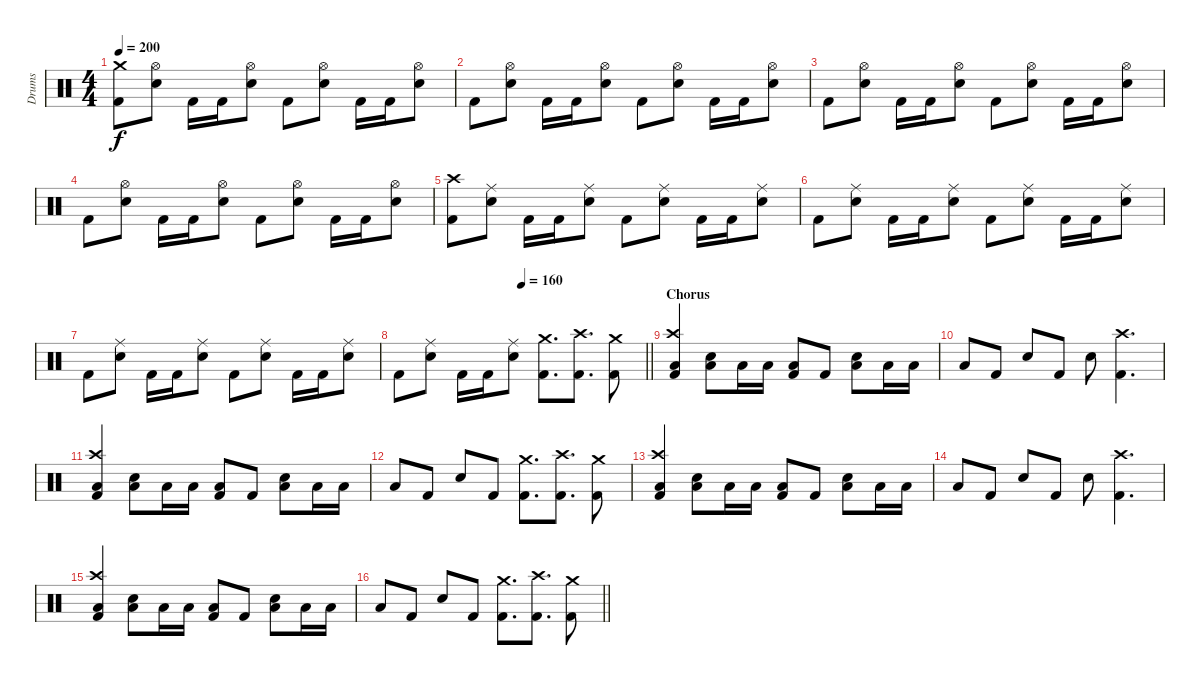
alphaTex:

\track ("Drums" "Drums") {instrument percussion}
\staff {score}
\articulation defaults
\ts (4 4)
\tempo 200
\clef neutral
\ks c
("Crash medium (hit)" "Kick (hit) 2").8{dy f} ("Hi-Hat (open)" "Electric Snare (hit)").8 "Kick (hit) 2".16 "Kick (hit) 2".16 ("Hi-Hat (open)" "Electric Snare (hit)").8 "Kick (hit) 2".8 ("Hi-Hat (open)" "Electric Snare (hit)").8 "Kick (hit) 2".16 "Kick (hit) 2".16 ("Hi-Hat (open)" "Electric Snare (hit)").8 |
"Kick (hit) 2".8 ("Hi-Hat (open)" "Electric Snare (hit)").8 "Kick (hit) 2".16 "Kick (hit) 2".16 ("Hi-Hat (open)" "Electric Snare (hit)").8 "Kick (hit) 2".8 ("Hi-Hat (open)" "Electric Snare (hit)").8 "Kick (hit) 2".16 "Kick (hit) 2".16 ("Hi-Hat (open)" "Electric Snare (hit)").8 |
"Kick (hit) 2".8 ("Hi-Hat (open)" "Electric Snare (hit)").8 "Kick (hit) 2".16 "Kick (hit) 2".16 ("Hi-Hat (open)" "Electric Snare (hit)").8 "Kick (hit) 2".8 ("Hi-Hat (open)" "Electric Snare (hit)").8 "Kick (hit) 2".16 "Kick (hit) 2".16 ("Hi-Hat (open)" "Electric Snare (hit)").8 |
"Kick (hit) 2".8 ("Hi-Hat (open)" "Electric Snare (hit)").8 "Kick (hit) 2".16 "Kick (hit) 2".16 ("Hi-Hat (open)" "Electric Snare (hit)").8 "Kick (hit) 2".8 ("Hi-Hat (open)" "Electric Snare (hit)").8 "Kick (hit) 2".16 "Kick (hit) 2".16 ("Hi-Hat (open)" "Electric Snare (hit)").8 |
("Crash high (hit)" "Kick (hit) 2").8 ("Ride (middle)" "Electric Snare (hit)").8 "Kick (hit) 2".16 "Kick (hit) 2".16 ("Ride (middle)" "Electric Snare (hit)").8 "Kick (hit) 2".8 ("Ride (middle)" "Electric Snare (hit)").8 "Kick (hit) 2".16 "Kick (hit) 2".16 ("Ride (middle)" "Electric Snare (hit)").8 |
"Kick (hit) 2".8 ("Ride (middle)" "Electric Snare (hit)").8 "Kick (hit) 2".16 "Kick (hit) 2".16 ("Ride (middle)" "Electric Snare (hit)").8 "Kick (hit) 2".8 ("Ride (middle)" "Electric Snare (hit)").8 "Kick (hit) 2".16 "Kick (hit) 2".16 ("Ride (middle)" "Electric Snare (hit)").8 |
"Kick (hit) 2".8 ("Ride (middle)" "Electric Snare (hit)").8 "Kick (hit) 2".16 "Kick (hit) 2".16 ("Ride (middle)" "Electric Snare (hit)").8 "Kick (hit) 2".8 ("Ride (middle)" "Electric Snare (hit)").8 "Kick (hit) 2".16 "Kick (hit) 2".16 ("Ride (middle)" "Electric Snare (hit)").8 |
\tempo (160 0.5)
\barLineRight lightlight "Kick (hit) 2".8
("Ride (middle)" "Electric Snare (hit)").8 "Kick (hit) 2".16 "Kick (hit) 2".16 ("Ride (middle)" "Electric Snare (hit)").8 ("Crash medium (hit)" "Kick (hit) 2").8{d} ("Crash high (hit)" "Kick (hit) 2").8{d} ("Crash medium (hit)" "Kick (hit) 2").8 |
\section ("" "Chorus")
("Crash high (hit)" "Low Floor Tom (hit)" "Kick (hit) 2").4 ("Electric Snare (hit)" "Low Floor Tom (hit)").8 "Low Floor Tom (hit)".16 "Low Tom (hit)".16 ("Low Floor Tom (hit)" "Kick (hit) 2").8 "Kick (hit) 2".8 ("Electric Snare (hit)" "Low Floor Tom (hit)").8 "Low Floor Tom (hit)".16 "Low Tom (hit)".16 |
"Low Floor Tom (hit)".8 "Kick (hit) 2".8 "Electric Snare (hit)".8 "Kick (hit) 2".8 "Electric Snare (hit)".8 ("Crash high (hit)" "Kick (hit) 2").4{d} |
("Crash high (hit)" "Low Floor Tom (hit)" "Kick (hit) 2").4 ("Electric Snare (hit)" "Low Floor Tom (hit)").8 "Low Floor Tom (hit)".16 "Low Tom (hit)".16 ("Low Floor Tom (hit)" "Kick (hit) 2").8 "Kick (hit) 2".8 ("Electric Snare (hit)" "Low Floor Tom (hit)").8 "Low Floor Tom (hit)".16 "Low Tom (hit)".16 |
"Low Floor Tom (hit)".8 "Kick (hit) 2".8 "Electric Snare (hit)".8 "Kick (hit) 2".8 ("Crash medium (hit)" "Kick (hit) 2").8{d} ("Crash high (hit)" "Kick (hit) 2").8{d} ("Crash medium (hit)" "Kick (hit) 2").8 |
("Crash high (hit)" "Low Floor Tom (hit)" "Kick (hit) 2").4 ("Electric Snare (hit)" "Low Floor Tom (hit)").8 "Low Floor Tom (hit)".16 "Low Tom (hit)".16 ("Low Floor Tom (hit)" "Kick (hit) 2").8 "Kick (hit) 2".8 ("Electric Snare (hit)" "Low Floor Tom (hit)").8 "Low Floor Tom (hit)".16 "Low Tom (hit)".16 |
"Low Floor Tom (hit)".8 "Kick (hit) 2".8 "Electric Snare (hit)".8 "Kick (hit) 2".8 "Electric Snare (hit)".8 ("Crash high (hit)" "Kick (hit) 2").4{d} |
("Crash high (hit)" "Low Floor Tom (hit)" "Kick (hit) 2").4 ("Electric Snare (hit)" "Low Floor Tom (hit)").8 "Low Floor Tom (hit)".16 "Low Tom (hit)".16 ("Low Floor Tom (hit)" "Kick (hit) 2").8 "Kick (hit) 2".8 ("Electric Snare (hit)" "Low Floor Tom (hit)").8 "Low Floor Tom (hit)".16 "Low Tom (hit)".16 |
\barLineRight lightlight "Low Floor Tom (hit)".8 "Kick (hit) 2".8 "Electric Snare (hit)".8 "Kick (hit) 2".8
("Crash medium (hit)" "Kick (hit) 2").8{d} ("Crash high (hit)" "Kick (hit) 2").8{d} ("Crash medium (hit)" "Kick (hit) 2").8
